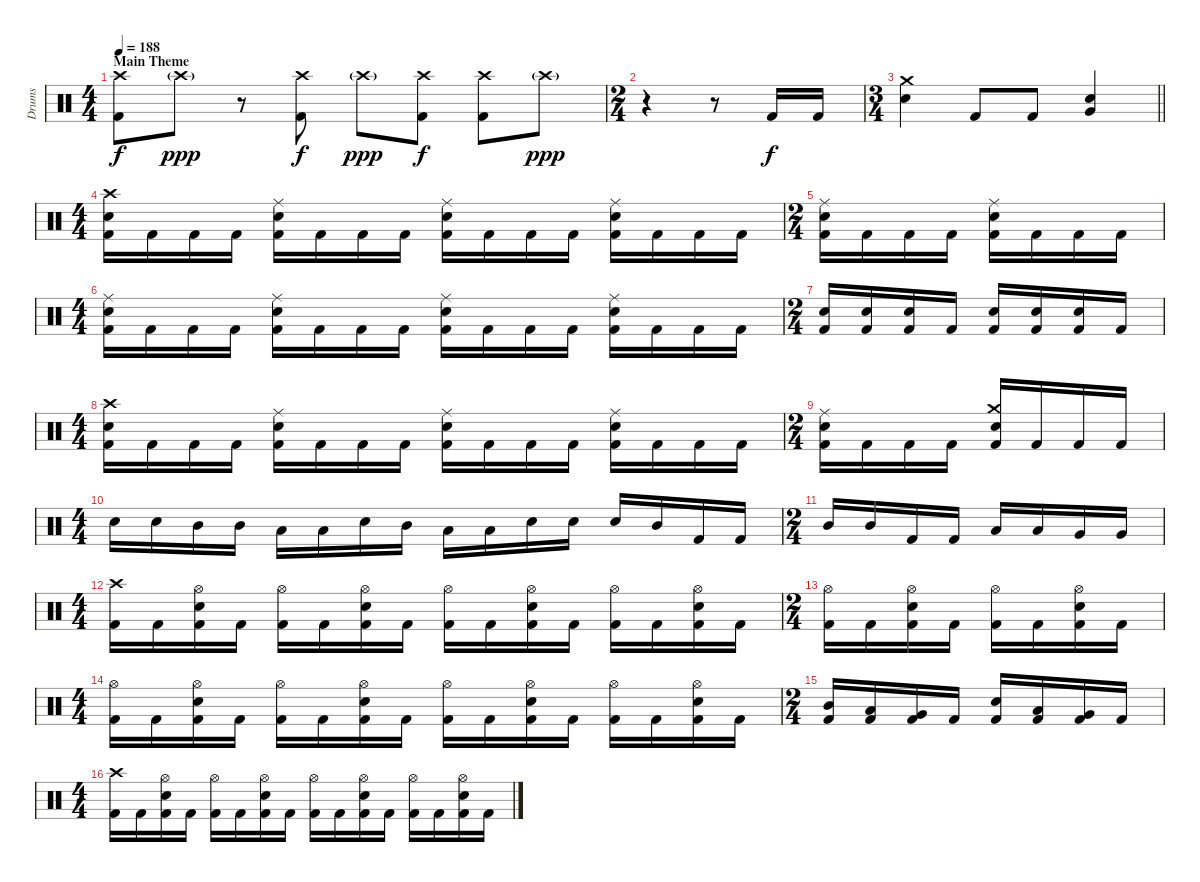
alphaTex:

\track ("Drums" "Drums") {instrument percussion}
\staff {score}
\articulation defaults
\ts (4 4)
\section ("" "Main Theme")
\tempo 188
\clef neutral
\ks c
("Crash high (hit)" "Kick (hit) 2").8{dy f} "Crash high (hit)"{g}.8{dy ppp} r.8 ("Crash high (hit)" "Kick (hit) 2").8{dy f} "Crash high (hit)"{g}.8{dy ppp} ("Crash high (hit)" "Kick (hit) 2").8{dy f} ("Crash high (hit)" "Kick (hit) 2").8 "Crash high (hit)"{g}.8{dy ppp} |
\ts (2 4)
r.4 r.8 "Kick (hit) 2".16{dy f} "Kick (hit) 2".16 |
\ts (3 4)
\barLineRight lightlight
("Crash medium (hit)" "Electric Snare (hit)").4 "Kick (hit) 2".8 "Kick (hit) 2".8 ("Very Low Tom (hit)" "Electric Snare (hit)").4 |
\ts (4 4)
("Crash high (hit)" "Electric Snare (hit)" "Kick (hit) 2").16 "Kick (hit) 2".16 "Kick (hit) 2".16 "Kick (hit) 2".16 ("Ride (middle)" "Electric Snare (hit)" "Kick (hit) 2").16 "Kick (hit) 2".16 "Kick (hit) 2".16 "Kick (hit) 2".16 ("Ride (middle)" "Electric Snare (hit)" "Kick (hit) 2").16 "Kick (hit) 2".16 "Kick (hit) 2".16 "Kick (hit) 2".16 ("Ride (middle)" "Electric Snare (hit)" "Kick (hit) 2").16 "Kick (hit) 2".16 "Kick (hit) 2".16 "Kick (hit) 2".16 |
\ts (2 4)
("Ride (middle)" "Electric Snare (hit)" "Kick (hit) 2").16 "Kick (hit) 2".16 "Kick (hit) 2".16 "Kick (hit) 2".16 ("Ride (middle)" "Electric Snare (hit)" "Kick (hit) 2").16 "Kick (hit) 2".16 "Kick (hit) 2".16 "Kick (hit) 2".16 |
\ts (4 4)
("Ride (middle)" "Electric Snare (hit)" "Kick (hit) 2").16 "Kick (hit) 2".16 "Kick (hit) 2".16 "Kick (hit) 2".16 ("Ride (middle)" "Electric Snare (hit)" "Kick (hit) 2").16 "Kick (hit) 2".16 "Kick (hit) 2".16 "Kick (hit) 2".16 ("Ride (middle)" "Electric Snare (hit)" "Kick (hit) 2").16 "Kick (hit) 2".16 "Kick (hit) 2".16 "Kick (hit) 2".16 ("Ride (middle)" "Electric Snare (hit)" "Kick (hit) 2").16 "Kick (hit) 2".16 "Kick (hit) 2".16 "Kick (hit) 2".16 |
\ts (2 4)
("Electric Snare (hit)" "Kick (hit) 2").16 ("Electric Snare (hit)" "Kick (hit) 2").16 ("Electric Snare (hit)" "Kick (hit) 2").16 "Kick (hit) 2".16 ("Electric Snare (hit)" "Kick (hit) 2").16 ("Electric Snare (hit)" "Kick (hit) 2").16 ("Electric Snare (hit)" "Kick (hit) 2").16 "Kick (hit) 2".16 |
\ts (4 4)
("Crash high (hit)" "Electric Snare (hit)" "Kick (hit) 2").16 "Kick (hit) 2".16 "Kick (hit) 2".16 "Kick (hit) 2".16 ("Ride (middle)" "Electric Snare (hit)" "Kick (hit) 2").16 "Kick (hit) 2".16 "Kick (hit) 2".16 "Kick (hit) 2".16 ("Ride (middle)" "Electric Snare (hit)" "Kick (hit) 2").16 "Kick (hit) 2".16 "Kick (hit) 2".16 "Kick (hit) 2".16 ("Ride (middle)" "Electric Snare (hit)" "Kick (hit) 2").16 "Kick (hit) 2".16 "Kick (hit) 2".16 "Kick (hit) 2".16 |
\ts (2 4)
("Ride (middle)" "Electric Snare (hit)" "Kick (hit) 2").16 "Kick (hit) 2".16 "Kick (hit) 2".16 "Kick (hit) 2".16 ("Crash medium (hit)" "Electric Snare (hit)" "Kick (hit) 2").16 "Kick (hit) 2".16 "Kick (hit) 2".16 "Kick (hit) 2".16 |
\ts (4 4)
"Electric Snare (hit)".16 "Electric Snare (hit)".16 "Mid Tom (hit)".16 "Mid Tom (hit)".16 "Low Tom (hit)".16 "Low Tom (hit)".16 "Electric Snare (hit)".16 "Mid Tom (hit)".16 "Low Tom (hit)".16 "Low Tom (hit)".16 "Electric Snare (hit)".16 "Electric Snare (hit)".16 "Electric Snare (hit)".16 "Mid Tom (hit)".16 "Kick (hit) 2".16 "Kick (hit) 2".16 |
\ts (2 4)
"Mid Tom (hit)".16 "Mid Tom (hit)".16 "Kick (hit) 2".16 "Kick (hit) 2".16 "Low Tom (hit)".16 "Low Tom (hit)".16 "Very Low Tom (hit)".16 "Very Low Tom (hit)".16 |
\ts (4 4)
("Crash high (hit)" "Kick (hit) 2").16 "Kick (hit) 2".16 ("Hi-Hat (open)" "Electric Snare (hit)" "Kick (hit) 2").16 "Kick (hit) 2".16 ("Hi-Hat (open)" "Kick (hit) 2").16 "Kick (hit) 2".16 ("Hi-Hat (open)" "Electric Snare (hit)" "Kick (hit) 2").16 "Kick (hit) 2".16 ("Hi-Hat (open)" "Kick (hit) 2").16 "Kick (hit) 2".16 ("Hi-Hat (open)" "Electric Snare (hit)" "Kick (hit) 2").16 "Kick (hit) 2".16 ("Hi-Hat (open)" "Kick (hit) 2").16 "Kick (hit) 2".16 ("Hi-Hat (open)" "Electric Snare (hit)" "Kick (hit) 2").16 "Kick (hit) 2".16 |
\ts (2 4)
("Hi-Hat (open)" "Kick (hit) 2").16 "Kick (hit) 2".16 ("Hi-Hat (open)" "Electric Snare (hit)" "Kick (hit) 2").16 "Kick (hit) 2".16 ("Hi-Hat (open)" "Kick (hit) 2").16 "Kick (hit) 2".16 ("Hi-Hat (open)" "Electric Snare (hit)" "Kick (hit) 2").16 "Kick (hit) 2".16 |
\ts (4 4)
("Hi-Hat (open)" "Kick (hit) 2").16 "Kick (hit) 2".16 ("Hi-Hat (open)" "Electric Snare (hit)" "Kick (hit) 2").16 "Kick (hit) 2".16 ("Hi-Hat (open)" "Kick (hit) 2").16 "Kick (hit) 2".16 ("Hi-Hat (open)" "Electric Snare (hit)" "Kick (hit) 2").16 "Kick (hit) 2".16 ("Hi-Hat (open)" "Kick (hit) 2").16 "Kick (hit) 2".16 ("Hi-Hat (open)" "Electric Snare (hit)" "Kick (hit) 2").16 "Kick (hit) 2".16 ("Hi-Hat (open)" "Kick (hit) 2").16 "Kick (hit) 2".16 ("Hi-Hat (open)" "Electric Snare (hit)" "Kick (hit) 2").16 "Kick (hit) 2".16 |
\ts (2 4)
("Mid Tom (hit)" "Kick (hit) 2").16 ("Low Tom (hit)" "Kick (hit) 2").16 ("Very Low Tom (hit)" "Kick (hit) 2").16 "Kick (hit) 2".16 ("Electric Snare (hit)" "Kick (hit) 2").16 ("Low Tom (hit)" "Kick (hit) 2").16 ("Very Low Tom (hit)" "Kick (hit) 2").16 "Kick (hit) 2".16 |
\ts (4 4)
("Crash high (hit)" "Kick (hit) 2").16 "Kick (hit) 2".16 ("Hi-Hat (open)" "Electric Snare (hit)" "Kick (hit) 2").16 "Kick (hit) 2".16 ("Hi-Hat (open)" "Kick (hit) 2").16 "Kick (hit) 2".16 ("Hi-Hat (open)" "Electric Snare (hit)" "Kick (hit) 2").16 "Kick (hit) 2".16 ("Hi-Hat (open)" "Kick (hit) 2").16 "Kick (hit) 2".16 ("Hi-Hat (open)" "Electric Snare (hit)" "Kick (hit) 2").16 "Kick (hit) 2".16 ("Hi-Hat (open)" "Kick (hit) 2").16 "Kick (hit) 2".16 ("Hi-Hat (open)" "Electric Snare (hit)" "Kick (hit) 2").16 "Kick (hit) 2".16
